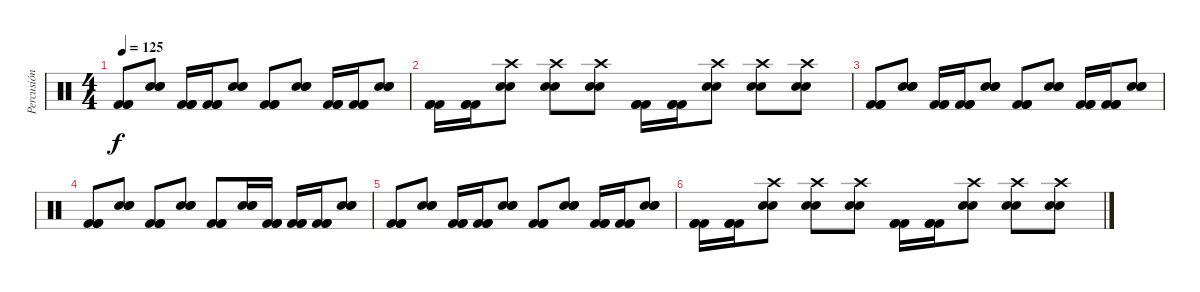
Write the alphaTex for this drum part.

\track ("Percusión" "Percusión") {instrument percussion}
\staff {score}
\articulation defaults
\ts (4 4)
\tempo 125
\clef neutral
\ks c
("Kick (hit) 2" "Kick (hit) 2" "Kick (hit) 2").8{dy f} ("Electric Snare (hit)" "Electric Snare (hit)" "Electric Snare (hit)").8 ("Kick (hit) 2" "Kick (hit) 2" "Kick (hit) 2").16 ("Kick (hit) 2" "Kick (hit) 2" "Kick (hit) 2").16 ("Electric Snare (hit)" "Electric Snare (hit)" "Electric Snare (hit)").8 ("Kick (hit) 2" "Kick (hit) 2" "Kick (hit) 2").8 ("Electric Snare (hit)" "Electric Snare (hit)" "Electric Snare (hit)").8 ("Kick (hit) 2" "Kick (hit) 2" "Kick (hit) 2").16 ("Kick (hit) 2" "Kick (hit) 2" "Kick (hit) 2").16 ("Electric Snare (hit)" "Electric Snare (hit)" "Electric Snare (hit)").8 |
("Kick (hit) 2" "Kick (hit) 2" "Kick (hit) 2").16 ("Kick (hit) 2" "Kick (hit) 2" "Kick (hit) 2").16 ("Crash high (hit)" "Electric Snare (hit)" "Electric Snare (hit)").8 ("Crash high (hit)" "Electric Snare (hit)" "Electric Snare (hit)").8 ("Crash high (hit)" "Electric Snare (hit)" "Electric Snare (hit)").8 ("Kick (hit) 2" "Kick (hit) 2" "Kick (hit) 2").16 ("Kick (hit) 2" "Kick (hit) 2" "Kick (hit) 2").16 ("Crash high (hit)" "Electric Snare (hit)" "Electric Snare (hit)").8 ("Crash high (hit)" "Electric Snare (hit)" "Electric Snare (hit)").8 ("Crash high (hit)" "Electric Snare (hit)" "Electric Snare (hit)").8 |
("Kick (hit) 2" "Kick (hit) 2" "Kick (hit) 2").8 ("Electric Snare (hit)" "Electric Snare (hit)" "Electric Snare (hit)").8 ("Kick (hit) 2" "Kick (hit) 2" "Kick (hit) 2").16 ("Kick (hit) 2" "Kick (hit) 2" "Kick (hit) 2").16 ("Electric Snare (hit)" "Electric Snare (hit)" "Electric Snare (hit)").8 ("Kick (hit) 2" "Kick (hit) 2" "Kick (hit) 2").8 ("Electric Snare (hit)" "Electric Snare (hit)" "Electric Snare (hit)").8 ("Kick (hit) 2" "Kick (hit) 2" "Kick (hit) 2").16 ("Kick (hit) 2" "Kick (hit) 2" "Kick (hit) 2").16 ("Electric Snare (hit)" "Electric Snare (hit)" "Electric Snare (hit)").8 |
("Kick (hit) 2" "Kick (hit) 2" "Kick (hit) 2").8 ("Electric Snare (hit)" "Electric Snare (hit)" "Electric Snare (hit)").8 ("Kick (hit) 2" "Kick (hit) 2" "Kick (hit) 2").8 ("Electric Snare (hit)" "Electric Snare (hit)" "Electric Snare (hit)").8 ("Kick (hit) 2" "Kick (hit) 2" "Kick (hit) 2").8 ("Electric Snare (hit)" "Electric Snare (hit)" "Electric Snare (hit)").16 ("Kick (hit) 2" "Kick (hit) 2" "Kick (hit) 2").16 ("Kick (hit) 2" "Kick (hit) 2" "Kick (hit) 2").16 ("Kick (hit) 2" "Kick (hit) 2" "Kick (hit) 2").16 ("Electric Snare (hit)" "Electric Snare (hit)" "Electric Snare (hit)").8 |
("Kick (hit) 2" "Kick (hit) 2" "Kick (hit) 2").8 ("Electric Snare (hit)" "Electric Snare (hit)" "Electric Snare (hit)").8 ("Kick (hit) 2" "Kick (hit) 2" "Kick (hit) 2").16 ("Kick (hit) 2" "Kick (hit) 2" "Kick (hit) 2").16 ("Electric Snare (hit)" "Electric Snare (hit)" "Electric Snare (hit)").8 ("Kick (hit) 2" "Kick (hit) 2" "Kick (hit) 2").8 ("Electric Snare (hit)" "Electric Snare (hit)" "Electric Snare (hit)").8 ("Kick (hit) 2" "Kick (hit) 2" "Kick (hit) 2").16 ("Kick (hit) 2" "Kick (hit) 2" "Kick (hit) 2").16 ("Electric Snare (hit)" "Electric Snare (hit)" "Electric Snare (hit)").8 |
("Kick (hit) 2" "Kick (hit) 2" "Kick (hit) 2").16 ("Kick (hit) 2" "Kick (hit) 2" "Kick (hit) 2").16 ("Crash high (hit)" "Electric Snare (hit)" "Electric Snare (hit)").8 ("Crash high (hit)" "Electric Snare (hit)" "Electric Snare (hit)").8 ("Crash high (hit)" "Electric Snare (hit)" "Electric Snare (hit)").8 ("Kick (hit) 2" "Kick (hit) 2" "Kick (hit) 2").16 ("Kick (hit) 2" "Kick (hit) 2" "Kick (hit) 2").16 ("Crash high (hit)" "Electric Snare (hit)" "Electric Snare (hit)").8 ("Crash high (hit)" "Electric Snare (hit)" "Electric Snare (hit)").8 ("Crash high (hit)" "Electric Snare (hit)" "Electric Snare (hit)").8
